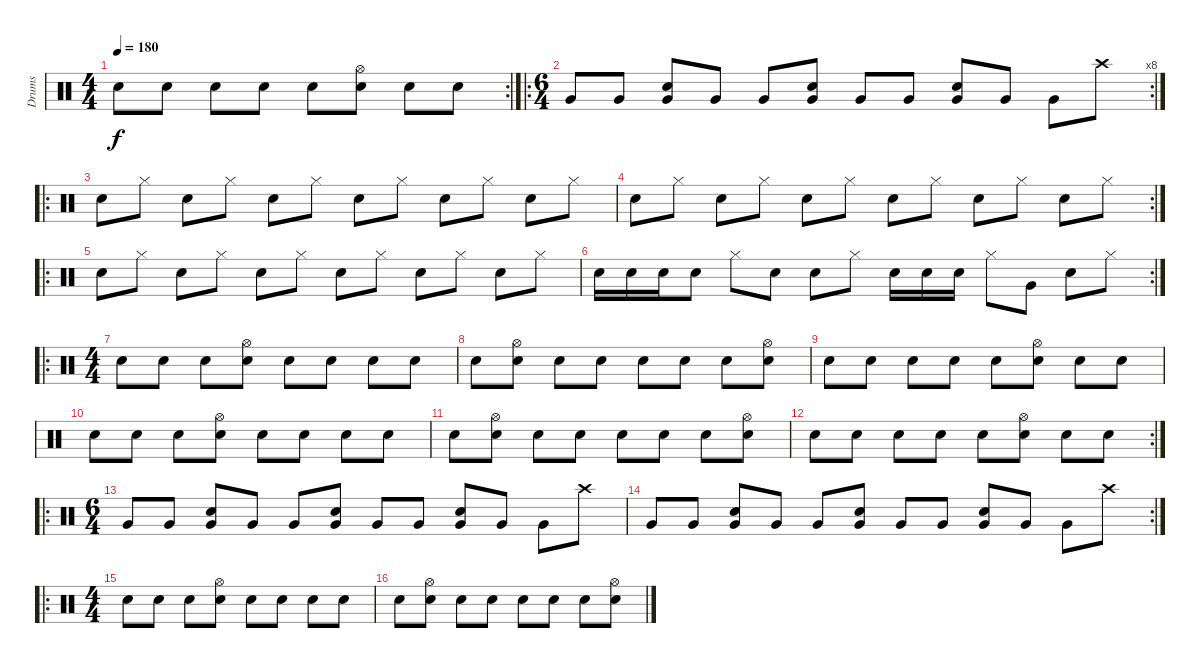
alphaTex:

\track ("Drums" "Drums") {instrument percussion}
\staff {score}
\articulation defaults
\rc 2
\ts (4 4)
\tempo 180
\clef neutral
\ks c "Electric Snare (hit)".8{dy f} "Electric Snare (hit)".8 "Electric Snare (hit)".8 "Electric Snare (hit)".8 "Electric Snare (hit)".8
("Hi-Hat (open)" "Electric Snare (hit)").8 "Electric Snare (hit)".8 "Electric Snare (hit)".8 |
\ro
\rc 8
\ts (6 4)
"Very Low Tom (hit)".8 "Very Low Tom (hit)".8 ("Electric Snare (hit)" "Very Low Tom (hit)").8 "Very Low Tom (hit)".8 "Very Low Tom (hit)".8 ("Electric Snare (hit)" "Very Low Tom (hit)").8 "Very Low Tom (hit)".8 "Very Low Tom (hit)".8 ("Electric Snare (hit)" "Very Low Tom (hit)").8 "Very Low Tom (hit)".8 "Very Low Tom (hit)".8 "Crash high (hit)".8 |
\ro "Electric Snare (hit)".8 "Hi-Hat (closed)".8 "Electric Snare (hit)".8 "Hi-Hat (closed)".8 "Electric Snare (hit)".8 "Hi-Hat (closed)".8 "Electric Snare (hit)".8 "Hi-Hat (closed)".8 "Electric Snare (hit)".8 "Hi-Hat (closed)".8 "Electric Snare (hit)".8 "Hi-Hat (closed)".8
|
\rc 2 "Electric Snare (hit)".8 "Hi-Hat (closed)".8 "Electric Snare (hit)".8 "Hi-Hat (closed)".8 "Electric Snare (hit)".8 "Hi-Hat (closed)".8 "Electric Snare (hit)".8 "Hi-Hat (closed)".8 "Electric Snare (hit)".8 "Hi-Hat (closed)".8 "Electric Snare (hit)".8 "Hi-Hat (closed)".8
|
\ro "Electric Snare (hit)".8 "Hi-Hat (closed)".8 "Electric Snare (hit)".8 "Hi-Hat (closed)".8 "Electric Snare (hit)".8 "Hi-Hat (closed)".8 "Electric Snare (hit)".8 "Hi-Hat (closed)".8 "Electric Snare (hit)".8 "Hi-Hat (closed)".8 "Electric Snare (hit)".8 "Hi-Hat (closed)".8
|
\rc 2 "Electric Snare (hit)".16 "Electric Snare (hit)".16 "Electric Snare (hit)".16 "Electric Snare (hit)".8 "Hi-Hat (closed)".8 "Electric Snare (hit)".8 "Electric Snare (hit)".8 "Hi-Hat (closed)".8 "Electric Snare (hit)".16 "Electric Snare (hit)".16 "Electric Snare (hit)".16 "Hi-Hat (closed)".8 "Very Low Tom (hit)".8 "Electric Snare (hit)".8 "Hi-Hat (closed)".8
|
\ro
\ts (4 4)
"Electric Snare (hit)".8 "Electric Snare (hit)".8 "Electric Snare (hit)".8 ("Hi-Hat (open)" "Electric Snare (hit)").8 "Electric Snare (hit)".8 "Electric Snare (hit)".8 "Electric Snare (hit)".8 "Electric Snare (hit)".8 |
"Electric Snare (hit)".8 ("Hi-Hat (open)" "Electric Snare (hit)").8 "Electric Snare (hit)".8 "Electric Snare (hit)".8 "Electric Snare (hit)".8 "Electric Snare (hit)".8 "Electric Snare (hit)".8 ("Hi-Hat (open)" "Electric Snare (hit)").8 |
"Electric Snare (hit)".8 "Electric Snare (hit)".8 "Electric Snare (hit)".8 "Electric Snare (hit)".8 "Electric Snare (hit)".8 ("Hi-Hat (open)" "Electric Snare (hit)").8 "Electric Snare (hit)".8 "Electric Snare (hit)".8 |
"Electric Snare (hit)".8 "Electric Snare (hit)".8 "Electric Snare (hit)".8 ("Hi-Hat (open)" "Electric Snare (hit)").8 "Electric Snare (hit)".8 "Electric Snare (hit)".8 "Electric Snare (hit)".8 "Electric Snare (hit)".8 |
"Electric Snare (hit)".8 ("Hi-Hat (open)" "Electric Snare (hit)").8 "Electric Snare (hit)".8 "Electric Snare (hit)".8 "Electric Snare (hit)".8 "Electric Snare (hit)".8 "Electric Snare (hit)".8 ("Hi-Hat (open)" "Electric Snare (hit)").8 |
\rc 2 "Electric Snare (hit)".8 "Electric Snare (hit)".8 "Electric Snare (hit)".8 "Electric Snare (hit)".8 "Electric Snare (hit)".8
("Hi-Hat (open)" "Electric Snare (hit)").8 "Electric Snare (hit)".8 "Electric Snare (hit)".8 |
\ro
\ts (6 4)
"Very Low Tom (hit)".8 "Very Low Tom (hit)".8 ("Electric Snare (hit)" "Very Low Tom (hit)").8 "Very Low Tom (hit)".8 "Very Low Tom (hit)".8 ("Electric Snare (hit)" "Very Low Tom (hit)").8 "Very Low Tom (hit)".8 "Very Low Tom (hit)".8 ("Electric Snare (hit)" "Very Low Tom (hit)").8 "Very Low Tom (hit)".8 "Very Low Tom (hit)".8 "Crash high (hit)".8 |
\rc 2 "Very Low Tom (hit)".8 "Very Low Tom (hit)".8
("Electric Snare (hit)" "Very Low Tom (hit)").8 "Very Low Tom (hit)".8 "Very Low Tom (hit)".8 ("Electric Snare (hit)" "Very Low Tom (hit)").8 "Very Low Tom (hit)".8 "Very Low Tom (hit)".8 ("Electric Snare (hit)" "Very Low Tom (hit)").8 "Very Low Tom (hit)".8 "Very Low Tom (hit)".8 "Crash high (hit)".8 |
\ro
\ts (4 4)
"Electric Snare (hit)".8 "Electric Snare (hit)".8 "Electric Snare (hit)".8 ("Hi-Hat (open)" "Electric Snare (hit)").8 "Electric Snare (hit)".8 "Electric Snare (hit)".8 "Electric Snare (hit)".8 "Electric Snare (hit)".8 |
"Electric Snare (hit)".8 ("Hi-Hat (open)" "Electric Snare (hit)").8 "Electric Snare (hit)".8 "Electric Snare (hit)".8 "Electric Snare (hit)".8 "Electric Snare (hit)".8 "Electric Snare (hit)".8 ("Hi-Hat (open)" "Electric Snare (hit)").8
